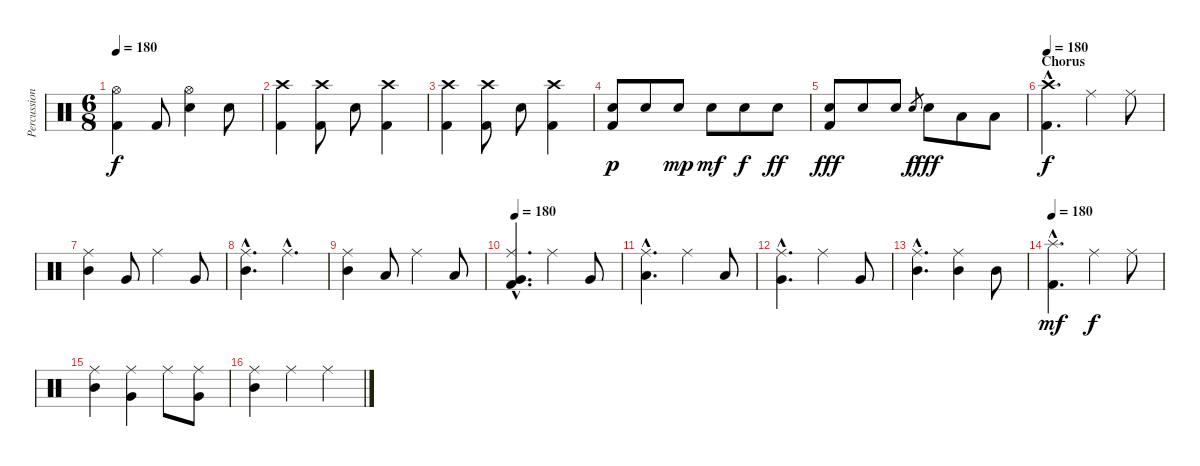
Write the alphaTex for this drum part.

\track ("Percussion" "Percussion") {instrument percussion}
\staff {score}
\articulation defaults
\ts (6 8)
\tempo 180
\clef neutral
\ks c
("Hi-Hat (open)" "Kick (hit) 2").4{dy f} "Kick (hit) 2".8 ("Hi-Hat (open)" "Electric Snare (hit)").4 "Electric Snare (hit)".8 |
("Crash high (hit)" "Kick (hit) 2").4 ("Crash high (hit)" "Kick (hit) 2").8 "Electric Snare (hit)".8 ("Crash high (hit)" "Kick (hit) 2").4 |
("Crash high (hit)" "Kick (hit) 2").4 ("Crash high (hit)" "Kick (hit) 2").8 "Electric Snare (hit)".8 ("Crash high (hit)" "Kick (hit) 2").4 |
("Electric Snare (hit)" "Kick (hit) 2").8{dy p} "Electric Snare (hit)".8 "Electric Snare (hit)".8{dy mp} "Electric Snare (hit)".8{dy mf} "Electric Snare (hit)".8{dy f} "Electric Snare (hit)".8{dy ff} |
("Electric Snare (hit)" "Kick (hit) 2").8{dy fff} "Electric Snare (hit)".8 "Electric Snare (hit)".8 "Electric Snare (hit)".8{gr dy f} "Electric Snare (hit)".8{dy fff} "Low Tom (hit)".8 "Low Tom (hit)".8 |
\section ("" "Chorus")
\tempo 180
("Crash high (hit)"{hac} "Kick (hit) 2"{hac}).4{d dy f} "Ride (middle)".4 "Ride (middle)".8 |
("Ride (middle)" "Mid Tom (hit)").4 "Very Low Tom (hit)".8 "Ride (middle)".4 "Very Low Tom (hit)".8 |
("Ride (middle)"{hac} "Mid Tom (hit)"{hac}).4{d} "Ride (middle)"{hac}.4{d} |
("Ride (middle)" "Mid Tom (hit)").4 "Low Tom (hit)".8 "Ride (middle)".4 "Low Tom (hit)".8 |
\tempo 180
("Ride (middle)"{hac} "Very Low Tom (hit)"{hac} "Kick (hit) 2"{hac}).4{d} "Ride (middle)".4 "Very Low Tom (hit)".8 |
("Ride (middle)"{hac} "Low Tom (hit)"{hac}).4{d} "Ride (middle)".4 "Low Tom (hit)".8 |
("Ride (middle)"{hac} "Very Low Tom (hit)"{hac}).4{d} "Ride (middle)".4 "Very Low Tom (hit)".8 |
("Ride (middle)"{hac} "Mid Tom (hit)"{hac}).4{d} ("Ride (middle)" "Mid Tom (hit)").4 "Mid Tom (hit)".8 |
\tempo 180
("Splash (hit)"{hac} "Kick (hit) 2"{hac}).4{d dy mf} "Ride (middle)".4{dy f} "Ride (middle)".8 |
("Ride (middle)" "Mid Tom (hit)").4 ("Ride (middle)" "Very Low Tom (hit)").4 "Ride (middle)".8 ("Ride (middle)" "Very Low Tom (hit)").8 |
("Ride (middle)" "Mid Tom (hit)").4 "Ride (middle)".4 "Ride (middle)".4
